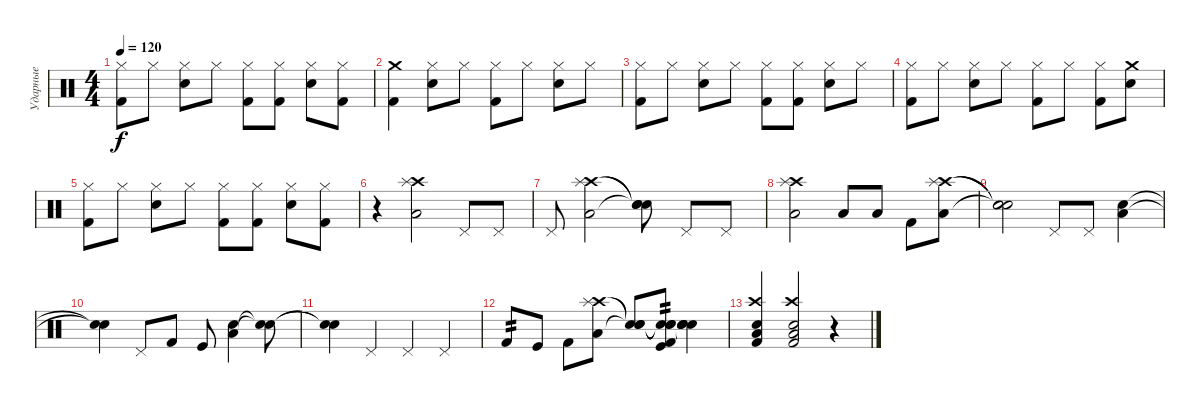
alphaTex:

\track ("Ударные" "Ударные") {instrument percussion}
\staff {score}
\articulation defaults
\ts (4 4)
\tempo 120
\clef neutral
\ks c
("Hi-Hat (closed)" "Kick (hit) 2").8{dy f} "Hi-Hat (closed)".8 ("Snare (hit) 2" "Hi-Hat (closed)").8 "Hi-Hat (closed)".8 ("Kick (hit) 2" "Hi-Hat (closed)").8 ("Kick (hit) 2" "Hi-Hat (closed)").8 ("Snare (hit) 2" "Hi-Hat (closed)").8 ("Kick (hit) 2" "Hi-Hat (closed)").8 |
("Kick (hit) 2" "Crash medium (hit)").4 ("Snare (hit) 2" "Hi-Hat (closed)").8 "Hi-Hat (closed)".8 ("Hi-Hat (closed)" "Kick (hit) 2").8 "Hi-Hat (closed)".8 ("Snare (hit) 2" "Hi-Hat (closed)").8 "Hi-Hat (closed)".8 |
("Hi-Hat (closed)" "Kick (hit) 2").8 "Hi-Hat (closed)".8 ("Snare (hit) 2" "Hi-Hat (closed)").8 "Hi-Hat (closed)".8 ("Kick (hit) 2" "Hi-Hat (closed)").8 ("Kick (hit) 2" "Hi-Hat (closed)").8 ("Snare (hit) 2" "Hi-Hat (closed)").8 "Hi-Hat (closed)".8 |
("Hi-Hat (closed)" "Kick (hit) 2").8 "Hi-Hat (closed)".8 ("Snare (hit) 2" "Hi-Hat (closed)").8 "Hi-Hat (closed)".8 ("Hi-Hat (closed)" "Kick (hit) 2").8 "Hi-Hat (closed)".8 ("Hi-Hat (closed)" "Kick (hit) 2").8 ("Crash medium (hit)" "Snare (hit) 2").8 |
("Hi-Hat (closed)" "Kick (hit) 2").8 "Hi-Hat (closed)".8 ("Snare (hit) 2" "Hi-Hat (closed)").8 "Hi-Hat (closed)".8 ("Kick (hit) 2" "Hi-Hat (closed)").8 ("Kick (hit) 2" "Hi-Hat (closed)").8 ("Snare (hit) 2" "Hi-Hat (closed)").8 ("Kick (hit) 2" "Hi-Hat (closed)").8 |
r.4 ("Crash high (hit)" "Low Floor Tom (hit)" "Splash (hit)").2 "Pedal Hi-Hat (hit)".8 "Pedal Hi-Hat (hit)".8 |
"Pedal Hi-Hat (hit)".8 ("Crash high (hit)" "Low Floor Tom (hit)" "Splash (hit)").2 ("Snare (hit)"{t} "Snare (hit)"{t} "Snare (hit)"{t}).8 "Pedal Hi-Hat (hit)".8 "Pedal Hi-Hat (hit)".8 |
("Crash high (hit)" "Low Floor Tom (hit)" "Splash (hit)").2 "Low Floor Tom (hit)".8 "Low Tom (hit)".8 "Kick (hit) 2".8 ("Crash high (hit)" "Low Floor Tom (hit)" "Splash (hit)").8 |
("Snare (hit)"{t} "Snare (hit)"{t} "Snare (hit)"{t}).2 "Pedal Hi-Hat (hit)".8 "Pedal Hi-Hat (hit)".8 ("Snare (hit) 2" "Low Floor Tom (hit)").4 |
("Snare (hit)"{t} "Snare (hit)"{t}).4 "Pedal Hi-Hat (hit)".8 "Kick (hit) 2".8 "Kick (hit)".8 ("Snare (hit) 2" "Low Floor Tom (hit)").4 ("Snare (hit)"{t} "Snare (hit)"{t}).8 |
("Snare (hit)"{t} "Snare (hit)"{t}).4 "Pedal Hi-Hat (hit)".4 "Pedal Hi-Hat (hit)".4 "Pedal Hi-Hat (hit)".4 |
"Kick (hit) 2".8{tp 2} "Kick (hit)".8 "Kick (hit) 2".8 ("Crash high (hit)" "Low Floor Tom (hit)" "Splash (hit)").8 ("Snare (hit)"{t} "Snare (hit)"{t} "Snare (hit)"{t}).8 ("Snare (hit)"{t} "Snare (hit)"{t} "Snare (hit)"{t} "Kick (hit)" "Kick (hit) 2").8{tp 2} ("Snare (hit)"{t} "Snare (hit)"{t} "Snare (hit)"{t} "Snare (hit) 2").4 |
("Crash high (hit)" "Kick (hit) 2" "Snare (hit) 2" "Low Floor Tom (hit)").4 ("Crash high (hit)" "Kick (hit) 2" "Snare (hit) 2" "Low Floor Tom (hit)").2 r.4
